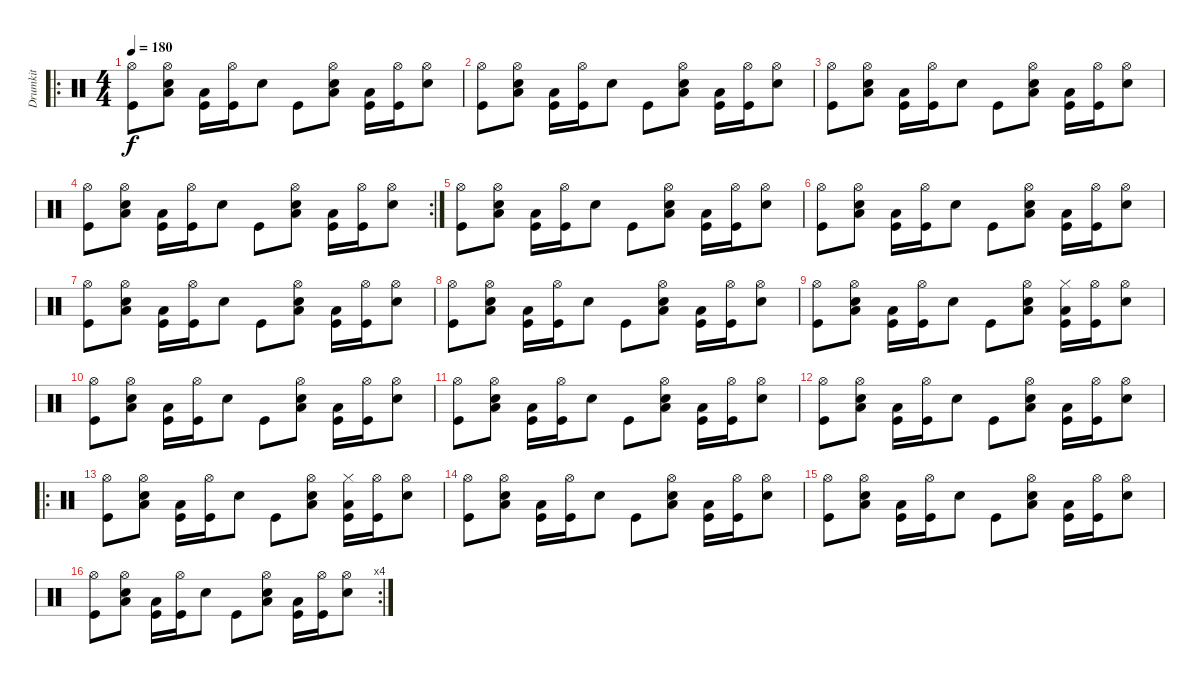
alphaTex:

\track ("Drumkit" "Drumkit") {instrument percussion}
\staff {score}
\articulation defaults
\ro
\ts (4 4)
\tempo 180
\clef neutral
\ks c
("Hi-Hat (open)" "Kick (hit)").8{dy f} ("Hi-Hat (open)" "Electric Snare (hit)" "Low Floor Tom (hit)").8 ("Low Floor Tom (hit)" "Kick (hit)").16 ("Hi-Hat (open)" "Kick (hit)").16 "Electric Snare (hit)".8 "Kick (hit)".8 ("Hi-Hat (open)" "Electric Snare (hit)" "Low Floor Tom (hit)").8 ("Low Floor Tom (hit)" "Kick (hit)").16 ("Hi-Hat (open)" "Kick (hit)").16 ("Hi-Hat (open)" "Electric Snare (hit)").8 |
("Hi-Hat (open)" "Kick (hit)").8 ("Hi-Hat (open)" "Electric Snare (hit)" "Low Floor Tom (hit)").8 ("Low Floor Tom (hit)" "Kick (hit)").16 ("Hi-Hat (open)" "Kick (hit)").16 "Electric Snare (hit)".8 "Kick (hit)".8 ("Hi-Hat (open)" "Electric Snare (hit)" "Low Floor Tom (hit)").8 ("Low Floor Tom (hit)" "Kick (hit)").16 ("Hi-Hat (open)" "Kick (hit)").16 ("Hi-Hat (open)" "Electric Snare (hit)").8 |
("Hi-Hat (open)" "Kick (hit)").8 ("Hi-Hat (open)" "Electric Snare (hit)" "Low Floor Tom (hit)").8 ("Low Floor Tom (hit)" "Kick (hit)").16 ("Hi-Hat (open)" "Kick (hit)").16 "Electric Snare (hit)".8 "Kick (hit)".8 ("Hi-Hat (open)" "Electric Snare (hit)" "Low Floor Tom (hit)").8 ("Low Floor Tom (hit)" "Kick (hit)").16 ("Hi-Hat (open)" "Kick (hit)").16 ("Hi-Hat (open)" "Electric Snare (hit)").8 |
\rc 2
("Hi-Hat (open)" "Kick (hit)").8 ("Hi-Hat (open)" "Electric Snare (hit)" "Low Floor Tom (hit)").8 ("Low Floor Tom (hit)" "Kick (hit)").16 ("Hi-Hat (open)" "Kick (hit)").16 "Electric Snare (hit)".8 "Kick (hit)".8 ("Hi-Hat (open)" "Electric Snare (hit)" "Low Floor Tom (hit)").8 ("Low Floor Tom (hit)" "Kick (hit)").16 ("Hi-Hat (open)" "Kick (hit)").16 ("Hi-Hat (open)" "Electric Snare (hit)").8 |
("Hi-Hat (open)" "Kick (hit)").8 ("Hi-Hat (open)" "Electric Snare (hit)" "Low Floor Tom (hit)").8 ("Low Floor Tom (hit)" "Kick (hit)").16 ("Hi-Hat (open)" "Kick (hit)").16 "Electric Snare (hit)".8 "Kick (hit)".8 ("Hi-Hat (open)" "Electric Snare (hit)" "Low Floor Tom (hit)").8 ("Low Floor Tom (hit)" "Kick (hit)").16 ("Hi-Hat (open)" "Kick (hit)").16 ("Hi-Hat (open)" "Electric Snare (hit)").8 |
("Hi-Hat (open)" "Kick (hit)").8 ("Hi-Hat (open)" "Electric Snare (hit)" "Low Floor Tom (hit)").8 ("Low Floor Tom (hit)" "Kick (hit)").16 ("Hi-Hat (open)" "Kick (hit)").16 "Electric Snare (hit)".8 "Kick (hit)".8 ("Hi-Hat (open)" "Electric Snare (hit)" "Low Floor Tom (hit)").8 ("Low Floor Tom (hit)" "Kick (hit)").16 ("Hi-Hat (open)" "Kick (hit)").16 ("Hi-Hat (open)" "Electric Snare (hit)").8 |
("Hi-Hat (open)" "Kick (hit)").8 ("Hi-Hat (open)" "Electric Snare (hit)" "Low Floor Tom (hit)").8 ("Low Floor Tom (hit)" "Kick (hit)").16 ("Hi-Hat (open)" "Kick (hit)").16 "Electric Snare (hit)".8 "Kick (hit)".8 ("Hi-Hat (open)" "Electric Snare (hit)" "Low Floor Tom (hit)").8 ("Low Floor Tom (hit)" "Kick (hit)").16 ("Hi-Hat (open)" "Kick (hit)").16 ("Hi-Hat (open)" "Electric Snare (hit)").8 |
("Hi-Hat (open)" "Kick (hit)").8 ("Hi-Hat (open)" "Electric Snare (hit)" "Low Floor Tom (hit)").8 ("Low Floor Tom (hit)" "Kick (hit)").16 ("Hi-Hat (open)" "Kick (hit)").16 "Electric Snare (hit)".8 "Kick (hit)".8 ("Hi-Hat (open)" "Electric Snare (hit)" "Low Floor Tom (hit)").8 ("Low Floor Tom (hit)" "Kick (hit)").16 ("Hi-Hat (open)" "Kick (hit)").16 ("Hi-Hat (open)" "Electric Snare (hit)").8 |
("Hi-Hat (open)" "Kick (hit)").8 ("Hi-Hat (open)" "Electric Snare (hit)" "Low Floor Tom (hit)").8 ("Low Floor Tom (hit)" "Kick (hit)").16 ("Hi-Hat (open)" "Kick (hit)").16 "Electric Snare (hit)".8 "Kick (hit)".8 ("Hi-Hat (open)" "Electric Snare (hit)" "Low Floor Tom (hit)").8 ("Hi-Hat (closed)" "Low Floor Tom (hit)" "Kick (hit)").16 ("Hi-Hat (open)" "Kick (hit)").16 ("Hi-Hat (open)" "Electric Snare (hit)").8 |
("Hi-Hat (open)" "Kick (hit)").8 ("Hi-Hat (open)" "Electric Snare (hit)" "Low Floor Tom (hit)").8 ("Low Floor Tom (hit)" "Kick (hit)").16 ("Hi-Hat (open)" "Kick (hit)").16 "Electric Snare (hit)".8 "Kick (hit)".8 ("Hi-Hat (open)" "Electric Snare (hit)" "Low Floor Tom (hit)").8 ("Low Floor Tom (hit)" "Kick (hit)").16 ("Hi-Hat (open)" "Kick (hit)").16 ("Hi-Hat (open)" "Electric Snare (hit)").8 |
("Hi-Hat (open)" "Kick (hit)").8 ("Hi-Hat (open)" "Electric Snare (hit)" "Low Floor Tom (hit)").8 ("Low Floor Tom (hit)" "Kick (hit)").16 ("Hi-Hat (open)" "Kick (hit)").16 "Electric Snare (hit)".8 "Kick (hit)".8 ("Hi-Hat (open)" "Electric Snare (hit)" "Low Floor Tom (hit)").8 ("Low Floor Tom (hit)" "Kick (hit)").16 ("Hi-Hat (open)" "Kick (hit)").16 ("Hi-Hat (open)" "Electric Snare (hit)").8 |
("Hi-Hat (open)" "Kick (hit)").8 ("Hi-Hat (open)" "Electric Snare (hit)" "Low Floor Tom (hit)").8 ("Low Floor Tom (hit)" "Kick (hit)").16 ("Hi-Hat (open)" "Kick (hit)").16 "Electric Snare (hit)".8 "Kick (hit)".8 ("Hi-Hat (open)" "Electric Snare (hit)" "Low Floor Tom (hit)").8 ("Low Floor Tom (hit)" "Kick (hit)").16 ("Hi-Hat (open)" "Kick (hit)").16 ("Hi-Hat (open)" "Electric Snare (hit)").8 |
\ro
("Hi-Hat (open)" "Kick (hit)").8 ("Hi-Hat (open)" "Electric Snare (hit)" "Low Floor Tom (hit)").8 ("Low Floor Tom (hit)" "Kick (hit)").16 ("Hi-Hat (open)" "Kick (hit)").16 "Electric Snare (hit)".8 "Kick (hit)".8 ("Hi-Hat (open)" "Electric Snare (hit)" "Low Floor Tom (hit)").8 ("Hi-Hat (closed)" "Low Floor Tom (hit)" "Kick (hit)").16 ("Hi-Hat (open)" "Kick (hit)").16 ("Hi-Hat (open)" "Electric Snare (hit)").8 |
("Hi-Hat (open)" "Kick (hit)").8 ("Hi-Hat (open)" "Electric Snare (hit)" "Low Floor Tom (hit)").8 ("Low Floor Tom (hit)" "Kick (hit)").16 ("Hi-Hat (open)" "Kick (hit)").16 "Electric Snare (hit)".8 "Kick (hit)".8 ("Hi-Hat (open)" "Electric Snare (hit)" "Low Floor Tom (hit)").8 ("Low Floor Tom (hit)" "Kick (hit)").16 ("Hi-Hat (open)" "Kick (hit)").16 ("Hi-Hat (open)" "Electric Snare (hit)").8 |
("Hi-Hat (open)" "Kick (hit)").8 ("Hi-Hat (open)" "Electric Snare (hit)" "Low Floor Tom (hit)").8 ("Low Floor Tom (hit)" "Kick (hit)").16 ("Hi-Hat (open)" "Kick (hit)").16 "Electric Snare (hit)".8 "Kick (hit)".8 ("Hi-Hat (open)" "Electric Snare (hit)" "Low Floor Tom (hit)").8 ("Low Floor Tom (hit)" "Kick (hit)").16 ("Hi-Hat (open)" "Kick (hit)").16 ("Hi-Hat (open)" "Electric Snare (hit)").8 |
\rc 4
("Hi-Hat (open)" "Kick (hit)").8 ("Hi-Hat (open)" "Electric Snare (hit)" "Low Floor Tom (hit)").8 ("Low Floor Tom (hit)" "Kick (hit)").16 ("Hi-Hat (open)" "Kick (hit)").16 "Electric Snare (hit)".8 "Kick (hit)".8 ("Hi-Hat (open)" "Electric Snare (hit)" "Low Floor Tom (hit)").8 ("Low Floor Tom (hit)" "Kick (hit)").16 ("Hi-Hat (open)" "Kick (hit)").16 ("Hi-Hat (open)" "Electric Snare (hit)").8
